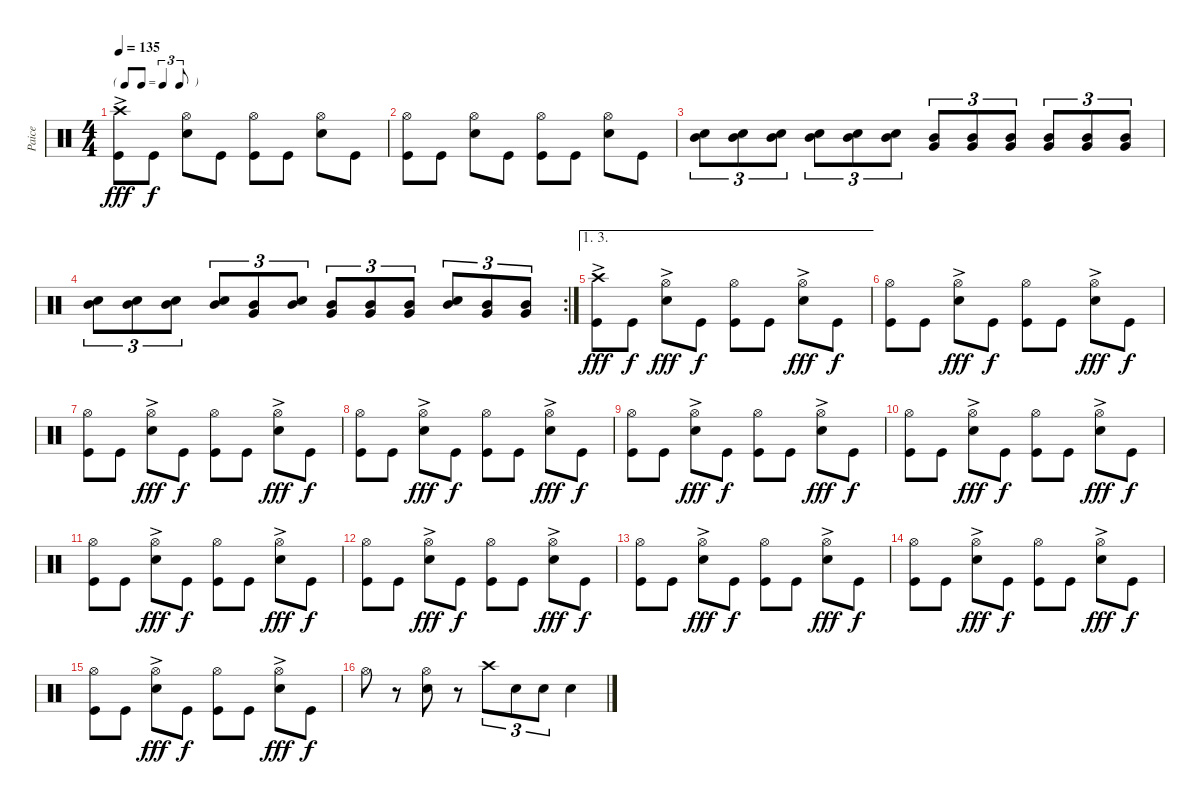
\track ("Paice" "Paice") {instrument percussion}
\staff {score}
\articulation defaults
\ts (4 4)
\tf triplet8th
\tempo 135
\clef neutral
\ks c
("Crash high (hit)"{ac} "Kick (hit)").8{dy fff} "Kick (hit)".8{dy f} ("Hi-Hat (open)" "Snare (hit) 2").8 "Kick (hit)".8 ("Hi-Hat (open)" "Kick (hit)").8 "Kick (hit)".8 ("Hi-Hat (open)" "Snare (hit) 2").8 "Kick (hit)".8 |
("Hi-Hat (open)" "Kick (hit)").8 "Kick (hit)".8 ("Hi-Hat (open)" "Snare (hit) 2").8 "Kick (hit)".8 ("Hi-Hat (open)" "Kick (hit)").8 "Kick (hit)".8 ("Hi-Hat (open)" "Snare (hit) 2").8 "Kick (hit)".8 |
("Mid Tom (hit)" "Snare (hit) 2").8{tu (3 2)} ("Mid Tom (hit)" "Snare (hit) 2").8{tu (3 2)} ("Mid Tom (hit)" "Snare (hit) 2").8{tu (3 2)} ("Mid Tom (hit)" "Snare (hit) 2").8{tu (3 2)} ("Mid Tom (hit)" "Snare (hit) 2").8{tu (3 2)} ("Mid Tom (hit)" "Snare (hit) 2").8{tu (3 2)} ("Mid Tom (hit)" "Very Low Tom (hit)").8{tu (3 2)} ("Mid Tom (hit)" "Very Low Tom (hit)").8{tu (3 2)} ("Mid Tom (hit)" "Very Low Tom (hit)").8{tu (3 2)} ("Mid Tom (hit)" "Very Low Tom (hit)").8{tu (3 2)} ("Mid Tom (hit)" "Very Low Tom (hit)").8{tu (3 2)} ("Mid Tom (hit)" "Very Low Tom (hit)").8{tu (3 2)} |
\rc 2
("Mid Tom (hit)" "Snare (hit) 2").8{tu (3 2)} ("Mid Tom (hit)" "Snare (hit) 2").8{tu (3 2)} ("Mid Tom (hit)" "Snare (hit) 2").8{tu (3 2)} ("Mid Tom (hit)" "Snare (hit) 2").8{tu (3 2)} ("Mid Tom (hit)" "Very Low Tom (hit)").8{tu (3 2)} ("Mid Tom (hit)" "Snare (hit) 2").8{tu (3 2)} ("Mid Tom (hit)" "Very Low Tom (hit)").8{tu (3 2)} ("Mid Tom (hit)" "Very Low Tom (hit)").8{tu (3 2)} ("Mid Tom (hit)" "Very Low Tom (hit)").8{tu (3 2)} ("Mid Tom (hit)" "Snare (hit) 2").8{tu (3 2)} ("Mid Tom (hit)" "Very Low Tom (hit)").8{tu (3 2)} ("Mid Tom (hit)" "Very Low Tom (hit)").8{tu (3 2)} |
\ae (1 3)
("Crash high (hit)"{ac} "Kick (hit)").8{dy fff} "Kick (hit)".8{dy f} ("Hi-Hat (open)" "Snare (hit) 2"{ac}).8{dy fff} "Kick (hit)".8{dy f} ("Hi-Hat (open)" "Kick (hit)").8 "Kick (hit)".8 ("Hi-Hat (open)" "Snare (hit) 2"{ac}).8{dy fff} "Kick (hit)".8{dy f} |
("Hi-Hat (open)" "Kick (hit)").8 "Kick (hit)".8 ("Hi-Hat (open)" "Snare (hit) 2"{ac}).8{dy fff} "Kick (hit)".8{dy f} ("Hi-Hat (open)" "Kick (hit)").8 "Kick (hit)".8 ("Hi-Hat (open)" "Snare (hit) 2"{ac}).8{dy fff} "Kick (hit)".8{dy f} |
("Hi-Hat (open)" "Kick (hit)").8 "Kick (hit)".8 ("Hi-Hat (open)" "Snare (hit) 2"{ac}).8{dy fff} "Kick (hit)".8{dy f} ("Hi-Hat (open)" "Kick (hit)").8 "Kick (hit)".8 ("Hi-Hat (open)" "Snare (hit) 2"{ac}).8{dy fff} "Kick (hit)".8{dy f} |
("Hi-Hat (open)" "Kick (hit)").8 "Kick (hit)".8 ("Hi-Hat (open)" "Snare (hit) 2"{ac}).8{dy fff} "Kick (hit)".8{dy f} ("Hi-Hat (open)" "Kick (hit)").8 "Kick (hit)".8 ("Hi-Hat (open)" "Snare (hit) 2"{ac}).8{dy fff} "Kick (hit)".8{dy f} |
("Hi-Hat (open)" "Kick (hit)").8 "Kick (hit)".8 ("Hi-Hat (open)" "Snare (hit) 2"{ac}).8{dy fff} "Kick (hit)".8{dy f} ("Hi-Hat (open)" "Kick (hit)").8 "Kick (hit)".8 ("Hi-Hat (open)" "Snare (hit) 2"{ac}).8{dy fff} "Kick (hit)".8{dy f} |
("Hi-Hat (open)" "Kick (hit)").8 "Kick (hit)".8 ("Hi-Hat (open)" "Snare (hit) 2"{ac}).8{dy fff} "Kick (hit)".8{dy f} ("Hi-Hat (open)" "Kick (hit)").8 "Kick (hit)".8 ("Hi-Hat (open)" "Snare (hit) 2"{ac}).8{dy fff} "Kick (hit)".8{dy f} |
("Hi-Hat (open)" "Kick (hit)").8 "Kick (hit)".8 ("Hi-Hat (open)" "Snare (hit) 2"{ac}).8{dy fff} "Kick (hit)".8{dy f} ("Hi-Hat (open)" "Kick (hit)").8 "Kick (hit)".8 ("Hi-Hat (open)" "Snare (hit) 2"{ac}).8{dy fff} "Kick (hit)".8{dy f} |
("Hi-Hat (open)" "Kick (hit)").8 "Kick (hit)".8 ("Hi-Hat (open)" "Snare (hit) 2"{ac}).8{dy fff} "Kick (hit)".8{dy f} ("Hi-Hat (open)" "Kick (hit)").8 "Kick (hit)".8 ("Hi-Hat (open)" "Snare (hit) 2"{ac}).8{dy fff} "Kick (hit)".8{dy f} |
("Hi-Hat (open)" "Kick (hit)").8 "Kick (hit)".8 ("Hi-Hat (open)" "Snare (hit) 2"{ac}).8{dy fff} "Kick (hit)".8{dy f} ("Hi-Hat (open)" "Kick (hit)").8 "Kick (hit)".8 ("Hi-Hat (open)" "Snare (hit) 2"{ac}).8{dy fff} "Kick (hit)".8{dy f} |
("Hi-Hat (open)" "Kick (hit)").8 "Kick (hit)".8 ("Hi-Hat (open)" "Snare (hit) 2"{ac}).8{dy fff} "Kick (hit)".8{dy f} ("Hi-Hat (open)" "Kick (hit)").8 "Kick (hit)".8 ("Hi-Hat (open)" "Snare (hit) 2"{ac}).8{dy fff} "Kick (hit)".8{dy f} |
("Hi-Hat (open)" "Kick (hit)").8 "Kick (hit)".8 ("Hi-Hat (open)" "Snare (hit) 2"{ac}).8{dy fff} "Kick (hit)".8{dy f} ("Hi-Hat (open)" "Kick (hit)").8 "Kick (hit)".8 ("Hi-Hat (open)" "Snare (hit) 2"{ac}).8{dy fff} "Kick (hit)".8{dy f} |
"Hi-Hat (open)".8 r.8 ("Hi-Hat (open)" "Snare (hit) 2").8 r.8 "Crash high (hit)".8{tu (3 2)} "Snare (hit) 2".8{tu (3 2)} "Snare (hit) 2".8{tu (3 2)} "Snare (hit) 2".4
